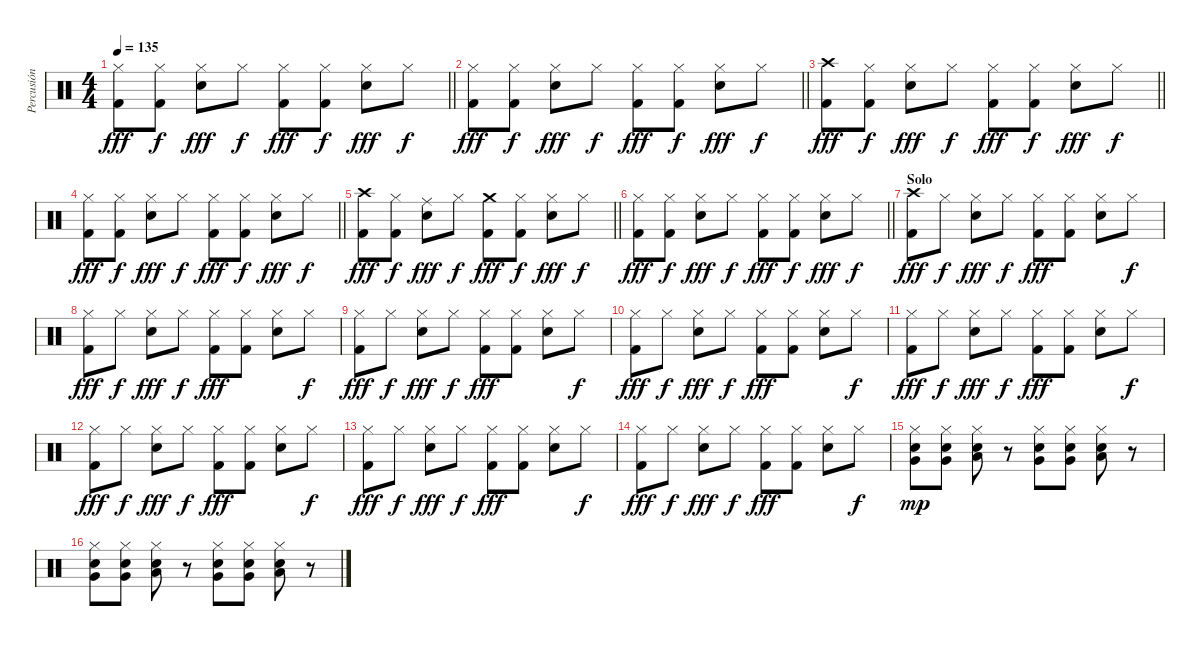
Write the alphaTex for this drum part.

\track ("Percusión" "Percusión") {instrument percussion}
\staff {score}
\articulation defaults
\ts (4 4)
\tempo 135
\clef neutral
\barLineRight lightlight
\ks c
("Hi-Hat (closed)" "Kick (hit) 2").8{dy fff} ("Hi-Hat (closed)" "Kick (hit) 2").8{dy f} ("Hi-Hat (closed)" "Electric Snare (hit)").8{dy fff} "Hi-Hat (closed)".8{dy f} ("Hi-Hat (closed)" "Kick (hit) 2").8{dy fff} ("Hi-Hat (closed)" "Kick (hit) 2").8{dy f} ("Hi-Hat (closed)" "Electric Snare (hit)").8{dy fff} "Hi-Hat (closed)".8{dy f} |
\barLineRight lightlight
("Hi-Hat (closed)" "Kick (hit) 2").8{dy fff} ("Hi-Hat (closed)" "Kick (hit) 2").8{dy f} ("Hi-Hat (closed)" "Electric Snare (hit)").8{dy fff} "Hi-Hat (closed)".8{dy f} ("Hi-Hat (closed)" "Kick (hit) 2").8{dy fff} ("Hi-Hat (closed)" "Kick (hit) 2").8{dy f} ("Hi-Hat (closed)" "Electric Snare (hit)").8{dy fff} "Hi-Hat (closed)".8{dy f} |
\barLineRight lightlight
("Crash high (hit)" "Kick (hit) 2").8{dy fff} ("Hi-Hat (closed)" "Kick (hit) 2").8{dy f} ("Hi-Hat (closed)" "Electric Snare (hit)").8{dy fff} "Hi-Hat (closed)".8{dy f} ("Hi-Hat (closed)" "Kick (hit) 2").8{dy fff} ("Hi-Hat (closed)" "Kick (hit) 2").8{dy f} ("Hi-Hat (closed)" "Electric Snare (hit)").8{dy fff} "Hi-Hat (closed)".8{dy f} |
\barLineRight lightlight
("Hi-Hat (closed)" "Kick (hit) 2").8{dy fff} ("Hi-Hat (closed)" "Kick (hit) 2").8{dy f} ("Hi-Hat (closed)" "Electric Snare (hit)").8{dy fff} "Hi-Hat (closed)".8{dy f} ("Hi-Hat (closed)" "Kick (hit) 2").8{dy fff} ("Hi-Hat (closed)" "Kick (hit) 2").8{dy f} ("Hi-Hat (closed)" "Electric Snare (hit)").8{dy fff} "Hi-Hat (closed)".8{dy f} |
\barLineRight lightlight
("Crash high (hit)" "Kick (hit) 2").8{dy fff} ("Hi-Hat (closed)" "Kick (hit) 2").8{dy f} ("Ride (middle)" "Electric Snare (hit)").8{dy fff} "Hi-Hat (closed)".8{dy f} ("Crash medium (hit)" "Kick (hit) 2").8{dy fff} ("Hi-Hat (closed)" "Kick (hit) 2").8{dy f} ("Hi-Hat (closed)" "Electric Snare (hit)").8{dy fff} "Hi-Hat (closed)".8{dy f} |
\barLineRight lightlight
("Hi-Hat (closed)" "Kick (hit) 2").8{dy fff} ("Hi-Hat (closed)" "Kick (hit) 2").8{dy f} ("Hi-Hat (closed)" "Electric Snare (hit)").8{dy fff} "Hi-Hat (closed)".8{dy f} ("Hi-Hat (closed)" "Kick (hit) 2").8{dy fff} ("Hi-Hat (closed)" "Kick (hit) 2").8{dy f} ("Hi-Hat (closed)" "Electric Snare (hit)").8{dy fff} "Hi-Hat (closed)".8{dy f} |
\section ("" "Solo")
("Crash high (hit)" "Kick (hit) 2").8{dy fff} "Hi-Hat (closed)".8{dy f} ("Hi-Hat (closed)" "Electric Snare (hit)").8{dy fff} "Hi-Hat (closed)".8{dy f} ("Hi-Hat (closed)" "Kick (hit) 2").8{dy fff} ("Hi-Hat (closed)" "Kick (hit) 2").8 ("Hi-Hat (closed)" "Electric Snare (hit)").8 "Hi-Hat (closed)".8{dy f} |
("Hi-Hat (closed)" "Kick (hit) 2").8{dy fff} "Hi-Hat (closed)".8{dy f} ("Hi-Hat (closed)" "Electric Snare (hit)").8{dy fff} "Hi-Hat (closed)".8{dy f} ("Hi-Hat (closed)" "Kick (hit) 2").8{dy fff} ("Hi-Hat (closed)" "Kick (hit) 2").8 ("Hi-Hat (closed)" "Electric Snare (hit)").8 "Hi-Hat (closed)".8{dy f} |
("Hi-Hat (closed)" "Kick (hit) 2").8{dy fff} "Hi-Hat (closed)".8{dy f} ("Hi-Hat (closed)" "Electric Snare (hit)").8{dy fff} "Hi-Hat (closed)".8{dy f} ("Hi-Hat (closed)" "Kick (hit) 2").8{dy fff} ("Hi-Hat (closed)" "Kick (hit) 2").8 ("Hi-Hat (closed)" "Electric Snare (hit)").8 "Hi-Hat (closed)".8{dy f} |
("Hi-Hat (closed)" "Kick (hit) 2").8{dy fff} "Hi-Hat (closed)".8{dy f} ("Hi-Hat (closed)" "Electric Snare (hit)").8{dy fff} "Hi-Hat (closed)".8{dy f} ("Hi-Hat (closed)" "Kick (hit) 2").8{dy fff} ("Hi-Hat (closed)" "Kick (hit) 2").8 ("Hi-Hat (closed)" "Electric Snare (hit)").8 "Hi-Hat (closed)".8{dy f} |
("Hi-Hat (closed)" "Kick (hit) 2").8{dy fff} "Hi-Hat (closed)".8{dy f} ("Hi-Hat (closed)" "Electric Snare (hit)").8{dy fff} "Hi-Hat (closed)".8{dy f} ("Hi-Hat (closed)" "Kick (hit) 2").8{dy fff} ("Hi-Hat (closed)" "Kick (hit) 2").8 ("Hi-Hat (closed)" "Electric Snare (hit)").8 "Hi-Hat (closed)".8{dy f} |
("Hi-Hat (closed)" "Kick (hit) 2").8{dy fff} "Hi-Hat (closed)".8{dy f} ("Hi-Hat (closed)" "Electric Snare (hit)").8{dy fff} "Hi-Hat (closed)".8{dy f} ("Hi-Hat (closed)" "Kick (hit) 2").8{dy fff} ("Hi-Hat (closed)" "Kick (hit) 2").8 ("Hi-Hat (closed)" "Electric Snare (hit)").8 "Hi-Hat (closed)".8{dy f} |
("Hi-Hat (closed)" "Kick (hit) 2").8{dy fff} "Hi-Hat (closed)".8{dy f} ("Hi-Hat (closed)" "Electric Snare (hit)").8{dy fff} "Hi-Hat (closed)".8{dy f} ("Hi-Hat (closed)" "Kick (hit) 2").8{dy fff} ("Hi-Hat (closed)" "Kick (hit) 2").8 ("Hi-Hat (closed)" "Electric Snare (hit)").8 "Hi-Hat (closed)".8{dy f} |
("Hi-Hat (closed)" "Kick (hit) 2").8{dy fff} "Hi-Hat (closed)".8{dy f} ("Hi-Hat (closed)" "Electric Snare (hit)").8{dy fff} "Hi-Hat (closed)".8{dy f} ("Hi-Hat (closed)" "Kick (hit) 2").8{dy fff} ("Hi-Hat (closed)" "Kick (hit) 2").8 ("Hi-Hat (closed)" "Electric Snare (hit)").8 "Hi-Hat (closed)".8{dy f} |
("Hi-Hat (closed)" "Electric Snare (hit)" "Very Low Tom (hit)").8{dy mp} ("Hi-Hat (closed)" "Electric Snare (hit)" "Very Low Tom (hit)").8 ("Hi-Hat (closed)" "Electric Snare (hit)" "Low Tom (hit)").8 r.8 ("Hi-Hat (closed)" "Electric Snare (hit)" "Very Low Tom (hit)").8 ("Hi-Hat (closed)" "Electric Snare (hit)" "Very Low Tom (hit)").8 ("Hi-Hat (closed)" "Electric Snare (hit)" "Low Tom (hit)").8 r.8 |
("Hi-Hat (closed)" "Electric Snare (hit)" "Very Low Tom (hit)").8 ("Hi-Hat (closed)" "Electric Snare (hit)" "Very Low Tom (hit)").8 ("Hi-Hat (closed)" "Electric Snare (hit)" "Low Tom (hit)").8 r.8 ("Hi-Hat (closed)" "Electric Snare (hit)" "Very Low Tom (hit)").8 ("Hi-Hat (closed)" "Electric Snare (hit)" "Very Low Tom (hit)").8 ("Hi-Hat (closed)" "Electric Snare (hit)" "Low Tom (hit)").8 r.8
